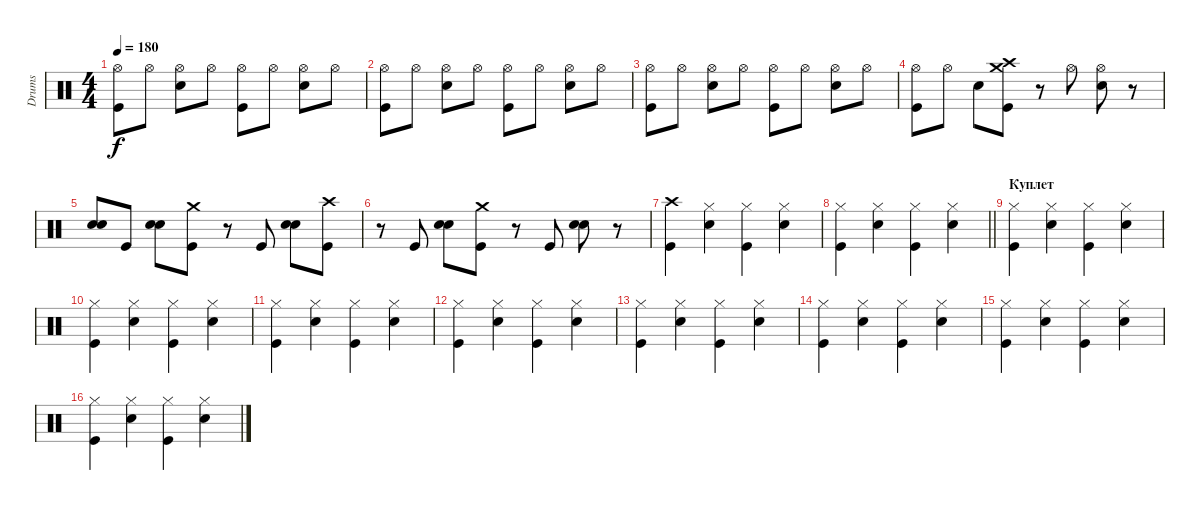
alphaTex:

\track ("Drums" "Drums") {instrument percussion}
\staff {score}
\articulation defaults
\ts (4 4)
\tempo 180
\clef neutral
\ks c
("Kick (hit)" "Hi-Hat (open)").8{dy f} "Hi-Hat (open)".8 ("Snare (hit) 2" "Hi-Hat (open)").8 "Hi-Hat (open)".8 ("Kick (hit)" "Hi-Hat (open)").8 "Hi-Hat (open)".8 ("Snare (hit) 2" "Hi-Hat (open)").8 "Hi-Hat (open)".8 |
("Kick (hit)" "Hi-Hat (open)").8 "Hi-Hat (open)".8 ("Snare (hit) 2" "Hi-Hat (open)").8 "Hi-Hat (open)".8 ("Kick (hit)" "Hi-Hat (open)").8 "Hi-Hat (open)".8 ("Snare (hit) 2" "Hi-Hat (open)").8 "Hi-Hat (open)".8 |
("Kick (hit)" "Hi-Hat (open)").8 "Hi-Hat (open)".8 ("Snare (hit) 2" "Hi-Hat (open)").8 "Hi-Hat (open)".8 ("Kick (hit)" "Hi-Hat (open)").8 "Hi-Hat (open)".8 ("Snare (hit) 2" "Hi-Hat (open)").8 "Hi-Hat (open)".8 |
("Kick (hit)" "Hi-Hat (open)").8 "Hi-Hat (open)".8 "Snare (hit) 2".8 ("Kick (hit)" "Crash medium (hit)" "Crash high (hit)").8 r.8 "Hi-Hat (open)".8 ("Snare (hit) 2" "Hi-Hat (open)").8 r.8 |
("Snare (hit) 2" "Snare (hit) 2").8{bd 120} "Kick (hit)".8 ("Snare (hit) 2" "Snare (hit) 2").8{bd 120} ("Kick (hit)" "Crash medium (hit)").8 r.8 "Kick (hit)".8 ("Snare (hit) 2" "Snare (hit) 2").8{bd 120} ("Kick (hit)" "Crash high (hit)").8 |
r.8 "Kick (hit)".8 ("Snare (hit) 2" "Snare (hit) 2").8{bd 120} ("Kick (hit)" "Crash medium (hit)").8 r.8 "Kick (hit)".8 ("Snare (hit) 2" "Snare (hit) 2").8{bd 120} r.8 |
("Kick (hit)" "Crash high (hit)").4 ("Snare (hit) 2" "Hi-Hat (closed)").4 ("Kick (hit)" "Hi-Hat (closed)").4 ("Snare (hit) 2" "Hi-Hat (closed)").4 |
\barLineRight lightlight
("Kick (hit)" "Hi-Hat (closed)").4 ("Snare (hit) 2" "Hi-Hat (closed)").4 ("Kick (hit)" "Hi-Hat (closed)").4 ("Snare (hit) 2" "Hi-Hat (closed)").4 |
\section ("" "Куплет")
("Kick (hit)" "Hi-Hat (closed)").4 ("Snare (hit) 2" "Hi-Hat (closed)").4 ("Kick (hit)" "Hi-Hat (closed)").4 ("Snare (hit) 2" "Hi-Hat (closed)").4 |
("Kick (hit)" "Hi-Hat (closed)").4 ("Snare (hit) 2" "Hi-Hat (closed)").4 ("Kick (hit)" "Hi-Hat (closed)").4 ("Snare (hit) 2" "Hi-Hat (closed)").4 |
("Kick (hit)" "Hi-Hat (closed)").4 ("Snare (hit) 2" "Hi-Hat (closed)").4 ("Kick (hit)" "Hi-Hat (closed)").4 ("Snare (hit) 2" "Hi-Hat (closed)").4 |
("Kick (hit)" "Hi-Hat (closed)").4 ("Snare (hit) 2" "Hi-Hat (closed)").4 ("Kick (hit)" "Hi-Hat (closed)").4 ("Snare (hit) 2" "Hi-Hat (closed)").4 |
("Kick (hit)" "Hi-Hat (closed)").4 ("Snare (hit) 2" "Hi-Hat (closed)").4 ("Kick (hit)" "Hi-Hat (closed)").4 ("Snare (hit) 2" "Hi-Hat (closed)").4 |
("Kick (hit)" "Hi-Hat (closed)").4 ("Snare (hit) 2" "Hi-Hat (closed)").4 ("Kick (hit)" "Hi-Hat (closed)").4 ("Snare (hit) 2" "Hi-Hat (closed)").4 |
("Kick (hit)" "Hi-Hat (closed)").4 ("Snare (hit) 2" "Hi-Hat (closed)").4 ("Kick (hit)" "Hi-Hat (closed)").4 ("Snare (hit) 2" "Hi-Hat (closed)").4 |
("Kick (hit)" "Hi-Hat (closed)").4 ("Snare (hit) 2" "Hi-Hat (closed)").4 ("Kick (hit)" "Hi-Hat (closed)").4 ("Snare (hit) 2" "Hi-Hat (closed)").4
